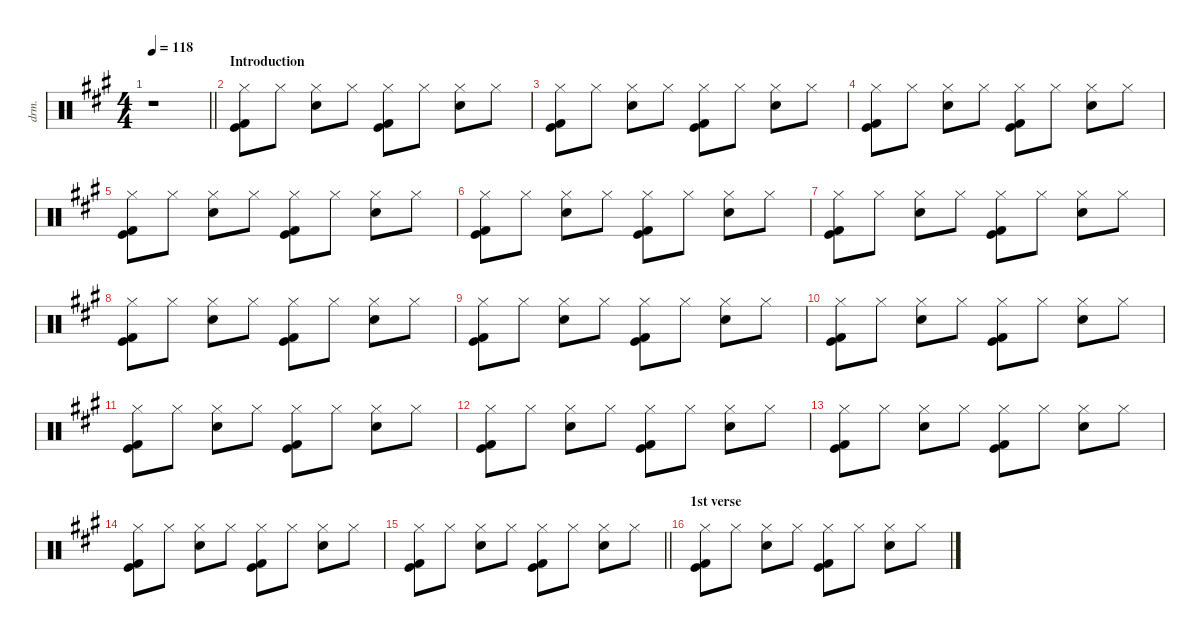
\defaultSystemsLayout 4
\hideDynamics
\bracketExtendMode nobrackets
\otherSystemsTrackNameOrientation horizontal
\track ("drums" "drm.") {instrument percussion}
\staff {score}
\articulation defaults
\ts (4 4)
\beaming (8 2 2 2 2)
\tempo 118
\clef neutral
\barLineRight lightlight
\ks f#minor
r.1{dy f} |
\section ("" "Introduction")
("Hi-Hat (closed)"{acc forcenatural} "Kick (hit)"{acc forcenatural} "Kick (hit) 2"{acc forcenatural}).8 "Hi-Hat (closed)"{acc forcenatural}.8{dy mf} ("Hi-Hat (closed)"{acc forcenatural} "Snare (hit) 2"{acc forcenatural}).8{dy f} "Hi-Hat (closed)"{acc forcenatural}.8{dy mf} ("Hi-Hat (closed)"{acc forcenatural} "Kick (hit)"{acc forcenatural} "Kick (hit) 2"{acc forcenatural}).8{dy f} "Hi-Hat (closed)"{acc forcenatural}.8{dy mf} ("Hi-Hat (closed)"{acc forcenatural} "Snare (hit) 2"{acc forcenatural}).8{dy f} "Hi-Hat (closed)"{acc forcenatural}.8{dy mf} |
("Hi-Hat (closed)"{acc forcenatural} "Kick (hit)"{acc forcenatural} "Kick (hit) 2"{acc forcenatural}).8{dy f} "Hi-Hat (closed)"{acc forcenatural}.8{dy mf} ("Hi-Hat (closed)"{acc forcenatural} "Snare (hit) 2"{acc forcenatural}).8{dy f} "Hi-Hat (closed)"{acc forcenatural}.8{dy mf} ("Hi-Hat (closed)"{acc forcenatural} "Kick (hit)"{acc forcenatural} "Kick (hit) 2"{acc forcenatural}).8{dy f} "Hi-Hat (closed)"{acc forcenatural}.8{dy mf} ("Hi-Hat (closed)"{acc forcenatural} "Snare (hit) 2"{acc forcenatural}).8{dy f} "Hi-Hat (closed)"{acc forcenatural}.8{dy mf} |
("Hi-Hat (closed)"{acc forcenatural} "Kick (hit)"{acc forcenatural} "Kick (hit) 2"{acc forcenatural}).8{dy f} "Hi-Hat (closed)"{acc forcenatural}.8{dy mf} ("Hi-Hat (closed)"{acc forcenatural} "Snare (hit) 2"{acc forcenatural}).8{dy f} "Hi-Hat (closed)"{acc forcenatural}.8{dy mf} ("Hi-Hat (closed)"{acc forcenatural} "Kick (hit)"{acc forcenatural} "Kick (hit) 2"{acc forcenatural}).8{dy f} "Hi-Hat (closed)"{acc forcenatural}.8{dy mf} ("Hi-Hat (closed)"{acc forcenatural} "Snare (hit) 2"{acc forcenatural}).8{dy f} "Hi-Hat (closed)"{acc forcenatural}.8{dy mf} |
("Hi-Hat (closed)"{acc forcenatural} "Kick (hit)"{acc forcenatural} "Kick (hit) 2"{acc forcenatural}).8{dy f} "Hi-Hat (closed)"{acc forcenatural}.8{dy mf} ("Hi-Hat (closed)"{acc forcenatural} "Snare (hit) 2"{acc forcenatural}).8{dy f} "Hi-Hat (closed)"{acc forcenatural}.8{dy mf} ("Hi-Hat (closed)"{acc forcenatural} "Kick (hit)"{acc forcenatural} "Kick (hit) 2"{acc forcenatural}).8{dy f} "Hi-Hat (closed)"{acc forcenatural}.8{dy mf} ("Hi-Hat (closed)"{acc forcenatural} "Snare (hit) 2"{acc forcenatural}).8{dy f} "Hi-Hat (closed)"{acc forcenatural}.8{dy mf} |
("Hi-Hat (closed)"{acc forcenatural} "Kick (hit)"{acc forcenatural} "Kick (hit) 2"{acc forcenatural}).8{dy f} "Hi-Hat (closed)"{acc forcenatural}.8{dy mf} ("Hi-Hat (closed)"{acc forcenatural} "Snare (hit) 2"{acc forcenatural}).8{dy f} "Hi-Hat (closed)"{acc forcenatural}.8{dy mf} ("Hi-Hat (closed)"{acc forcenatural} "Kick (hit)"{acc forcenatural} "Kick (hit) 2"{acc forcenatural}).8{dy f} "Hi-Hat (closed)"{acc forcenatural}.8{dy mf} ("Hi-Hat (closed)"{acc forcenatural} "Snare (hit) 2"{acc forcenatural}).8{dy f} "Hi-Hat (closed)"{acc forcenatural}.8{dy mf} |
("Hi-Hat (closed)"{acc forcenatural} "Kick (hit)"{acc forcenatural} "Kick (hit) 2"{acc forcenatural}).8{dy f} "Hi-Hat (closed)"{acc forcenatural}.8{dy mf} ("Hi-Hat (closed)"{acc forcenatural} "Snare (hit) 2"{acc forcenatural}).8{dy f} "Hi-Hat (closed)"{acc forcenatural}.8{dy mf} ("Hi-Hat (closed)"{acc forcenatural} "Kick (hit)"{acc forcenatural} "Kick (hit) 2"{acc forcenatural}).8{dy f} "Hi-Hat (closed)"{acc forcenatural}.8{dy mf} ("Hi-Hat (closed)"{acc forcenatural} "Snare (hit) 2"{acc forcenatural}).8{dy f} "Hi-Hat (closed)"{acc forcenatural}.8{dy mf} |
("Hi-Hat (closed)"{acc forcenatural} "Kick (hit)"{acc forcenatural} "Kick (hit) 2"{acc forcenatural}).8{dy f} "Hi-Hat (closed)"{acc forcenatural}.8{dy mf} ("Hi-Hat (closed)"{acc forcenatural} "Snare (hit) 2"{acc forcenatural}).8{dy f} "Hi-Hat (closed)"{acc forcenatural}.8{dy mf} ("Hi-Hat (closed)"{acc forcenatural} "Kick (hit)"{acc forcenatural} "Kick (hit) 2"{acc forcenatural}).8{dy f} "Hi-Hat (closed)"{acc forcenatural}.8{dy mf} ("Hi-Hat (closed)"{acc forcenatural} "Snare (hit) 2"{acc forcenatural}).8{dy f} "Hi-Hat (closed)"{acc forcenatural}.8{dy mf} |
("Hi-Hat (closed)"{acc forcenatural} "Kick (hit)"{acc forcenatural} "Kick (hit) 2"{acc forcenatural}).8{dy f} "Hi-Hat (closed)"{acc forcenatural}.8{dy mf} ("Hi-Hat (closed)"{acc forcenatural} "Snare (hit) 2"{acc forcenatural}).8{dy f} "Hi-Hat (closed)"{acc forcenatural}.8{dy mf} ("Hi-Hat (closed)"{acc forcenatural} "Kick (hit)"{acc forcenatural} "Kick (hit) 2"{acc forcenatural}).8{dy f} "Hi-Hat (closed)"{acc forcenatural}.8{dy mf} ("Hi-Hat (closed)"{acc forcenatural} "Snare (hit) 2"{acc forcenatural}).8{dy f} "Hi-Hat (closed)"{acc forcenatural}.8{dy mf} |
("Hi-Hat (closed)"{acc forcenatural} "Kick (hit)"{acc forcenatural} "Kick (hit) 2"{acc forcenatural}).8{dy f} "Hi-Hat (closed)"{acc forcenatural}.8{dy mf} ("Hi-Hat (closed)"{acc forcenatural} "Snare (hit) 2"{acc forcenatural}).8{dy f} "Hi-Hat (closed)"{acc forcenatural}.8{dy mf} ("Hi-Hat (closed)"{acc forcenatural} "Kick (hit)"{acc forcenatural} "Kick (hit) 2"{acc forcenatural}).8{dy f} "Hi-Hat (closed)"{acc forcenatural}.8{dy mf} ("Hi-Hat (closed)"{acc forcenatural} "Snare (hit) 2"{acc forcenatural}).8{dy f} "Hi-Hat (closed)"{acc forcenatural}.8{dy mf} |
("Hi-Hat (closed)"{acc forcenatural} "Kick (hit)"{acc forcenatural} "Kick (hit) 2"{acc forcenatural}).8{dy f} "Hi-Hat (closed)"{acc forcenatural}.8{dy mf} ("Hi-Hat (closed)"{acc forcenatural} "Snare (hit) 2"{acc forcenatural}).8{dy f} "Hi-Hat (closed)"{acc forcenatural}.8{dy mf} ("Hi-Hat (closed)"{acc forcenatural} "Kick (hit)"{acc forcenatural} "Kick (hit) 2"{acc forcenatural}).8{dy f} "Hi-Hat (closed)"{acc forcenatural}.8{dy mf} ("Hi-Hat (closed)"{acc forcenatural} "Snare (hit) 2"{acc forcenatural}).8{dy f} "Hi-Hat (closed)"{acc forcenatural}.8{dy mf} |
("Hi-Hat (closed)"{acc forcenatural} "Kick (hit)"{acc forcenatural} "Kick (hit) 2"{acc forcenatural}).8{dy f} "Hi-Hat (closed)"{acc forcenatural}.8{dy mf} ("Hi-Hat (closed)"{acc forcenatural} "Snare (hit) 2"{acc forcenatural}).8{dy f} "Hi-Hat (closed)"{acc forcenatural}.8{dy mf} ("Hi-Hat (closed)"{acc forcenatural} "Kick (hit)"{acc forcenatural} "Kick (hit) 2"{acc forcenatural}).8{dy f} "Hi-Hat (closed)"{acc forcenatural}.8{dy mf} ("Hi-Hat (closed)"{acc forcenatural} "Snare (hit) 2"{acc forcenatural}).8{dy f} "Hi-Hat (closed)"{acc forcenatural}.8{dy mf} |
("Hi-Hat (closed)"{acc forcenatural} "Kick (hit)"{acc forcenatural} "Kick (hit) 2"{acc forcenatural}).8{dy f} "Hi-Hat (closed)"{acc forcenatural}.8{dy mf} ("Hi-Hat (closed)"{acc forcenatural} "Snare (hit) 2"{acc forcenatural}).8{dy f} "Hi-Hat (closed)"{acc forcenatural}.8{dy mf} ("Hi-Hat (closed)"{acc forcenatural} "Kick (hit)"{acc forcenatural} "Kick (hit) 2"{acc forcenatural}).8{dy f} "Hi-Hat (closed)"{acc forcenatural}.8{dy mf} ("Hi-Hat (closed)"{acc forcenatural} "Snare (hit) 2"{acc forcenatural}).8{dy f} "Hi-Hat (closed)"{acc forcenatural}.8{dy mf} |
("Hi-Hat (closed)"{acc forcenatural} "Kick (hit)"{acc forcenatural} "Kick (hit) 2"{acc forcenatural}).8{dy f} "Hi-Hat (closed)"{acc forcenatural}.8{dy mf} ("Hi-Hat (closed)"{acc forcenatural} "Snare (hit) 2"{acc forcenatural}).8{dy f} "Hi-Hat (closed)"{acc forcenatural}.8{dy mf} ("Hi-Hat (closed)"{acc forcenatural} "Kick (hit)"{acc forcenatural} "Kick (hit) 2"{acc forcenatural}).8{dy f} "Hi-Hat (closed)"{acc forcenatural}.8{dy mf} ("Hi-Hat (closed)"{acc forcenatural} "Snare (hit) 2"{acc forcenatural}).8{dy f} "Hi-Hat (closed)"{acc forcenatural}.8{dy mf} |
\barLineRight lightlight
("Hi-Hat (closed)"{acc forcenatural} "Kick (hit)"{acc forcenatural} "Kick (hit) 2"{acc forcenatural}).8{dy f} "Hi-Hat (closed)"{acc forcenatural}.8{dy mf} ("Hi-Hat (closed)"{acc forcenatural} "Snare (hit) 2"{acc forcenatural}).8{dy f} "Hi-Hat (closed)"{acc forcenatural}.8{dy mf} ("Hi-Hat (closed)"{acc forcenatural} "Kick (hit)"{acc forcenatural} "Kick (hit) 2"{acc forcenatural}).8{dy f} "Hi-Hat (closed)"{acc forcenatural}.8{dy mf} ("Hi-Hat (closed)"{acc forcenatural} "Snare (hit) 2"{acc forcenatural}).8{dy f} "Hi-Hat (closed)"{acc forcenatural}.8{dy mf} |
\section ("" "1st verse")
("Hi-Hat (closed)"{acc forcenatural} "Kick (hit)"{acc forcenatural} "Kick (hit) 2"{acc forcenatural}).8{dy f} "Hi-Hat (closed)"{acc forcenatural}.8{dy mf} ("Hi-Hat (closed)"{acc forcenatural} "Snare (hit) 2"{acc forcenatural}).8{dy f} "Hi-Hat (closed)"{acc forcenatural}.8{dy mf} ("Hi-Hat (closed)"{acc forcenatural} "Kick (hit)"{acc forcenatural} "Kick (hit) 2"{acc forcenatural}).8{dy f} "Hi-Hat (closed)"{acc forcenatural}.8{dy mf} ("Hi-Hat (closed)"{acc forcenatural} "Snare (hit) 2"{acc forcenatural}).8{dy f} "Hi-Hat (closed)"{acc forcenatural}.8{dy mf}
